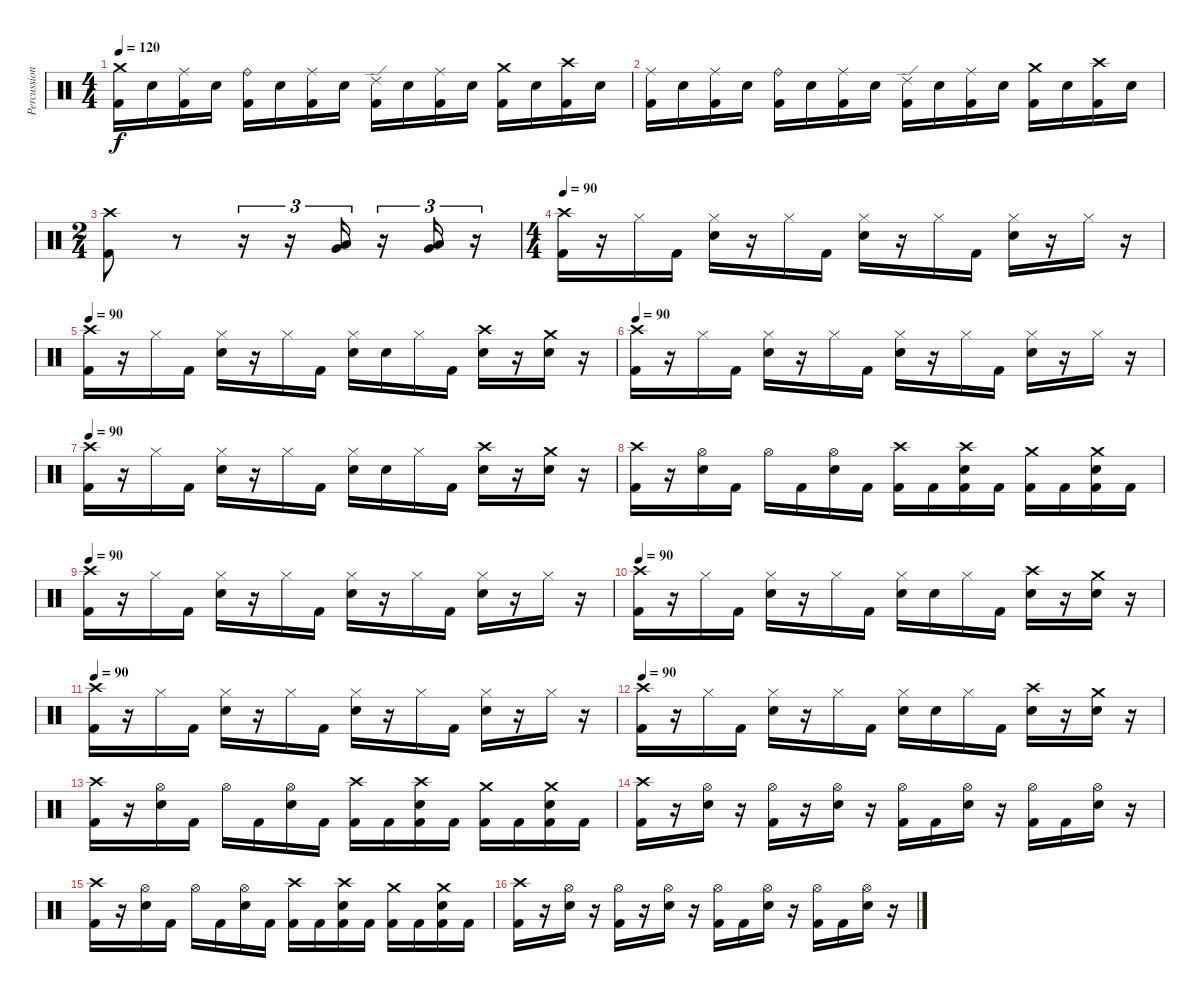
\track ("Percussion" "Percussion") {instrument percussion}
\staff {score}
\articulation defaults
\ts (4 4)
\tempo 120
\clef neutral
\ks c
("Crash medium (hit)" "Kick (hit) 2").16{dy f} "Snare (hit) 2".16 ("Ride (middle)" "Kick (hit) 2").16 "Snare (hit) 2".16 ("Ride (bell)" "Kick (hit) 2").16 "Snare (hit) 2".16 ("Ride (middle)" "Kick (hit) 2").16 "Snare (hit) 2".16 ("Ride (edge) 2" "Kick (hit) 2").16 "Snare (hit) 2".16 ("Ride (middle)" "Kick (hit) 2").16 "Snare (hit) 2".16 ("Crash medium (hit)" "Kick (hit) 2").16 "Snare (hit) 2".16 ("Crash high (hit)" "Kick (hit) 2").16 "Snare (hit) 2".16 |
("Ride (middle)" "Kick (hit) 2").16 "Snare (hit) 2".16 ("Ride (middle)" "Kick (hit) 2").16 "Snare (hit) 2".16 ("Ride (bell)" "Kick (hit) 2").16 "Snare (hit) 2".16 ("Ride (middle)" "Kick (hit) 2").16 "Snare (hit) 2".16 ("Ride (edge) 2" "Kick (hit) 2").16 "Snare (hit) 2".16 ("Ride (middle)" "Kick (hit) 2").16 "Snare (hit) 2".16 ("Crash medium (hit)" "Kick (hit) 2").16 "Snare (hit) 2".16 ("Crash high (hit)" "Kick (hit) 2").16 "Snare (hit) 2".16 |
\ts (2 4)
("Crash high (hit)" "Kick (hit) 2").8 r.8 r.16{tu (3 2)} r.16{tu (3 2)} ("Low Tom (hit)" "Very Low Tom (hit)").16{tu (3 2)} r.16{tu (3 2)} ("Low Tom (hit)" "Very Low Tom (hit)").16{tu (3 2)} r.16{tu (3 2)} |
\ts (4 4)
\tempo 90
("Crash high (hit)" "Kick (hit) 2").16 r.16 "Hi-Hat (closed)".16 "Kick (hit) 2".16 ("Hi-Hat (closed)" "Snare (hit) 2").16 r.16 "Hi-Hat (closed)".16 "Kick (hit) 2".16 ("Hi-Hat (closed)" "Snare (hit) 2").16 r.16 "Hi-Hat (closed)".16 "Kick (hit) 2".16 ("Hi-Hat (closed)" "Snare (hit) 2").16 r.16 "Hi-Hat (closed)".16 r.16 |
\tempo 90
("Crash high (hit)" "Kick (hit) 2").16 r.16 "Hi-Hat (closed)".16 "Kick (hit) 2".16 ("Hi-Hat (closed)" "Snare (hit) 2").16 r.16 "Hi-Hat (closed)".16 "Kick (hit) 2".16 ("Hi-Hat (closed)" "Snare (hit) 2").16 "Snare (hit) 2".16 "Hi-Hat (closed)".16 "Kick (hit) 2".16 ("Crash high (hit)" "Snare (hit) 2").16 r.16 ("Crash medium (hit)" "Snare (hit) 2").16 r.16 |
\tempo 90
("Crash high (hit)" "Kick (hit) 2").16 r.16 "Hi-Hat (closed)".16 "Kick (hit) 2".16 ("Hi-Hat (closed)" "Snare (hit) 2").16 r.16 "Hi-Hat (closed)".16 "Kick (hit) 2".16 ("Hi-Hat (closed)" "Snare (hit) 2").16 r.16 "Hi-Hat (closed)".16 "Kick (hit) 2".16 ("Hi-Hat (closed)" "Snare (hit) 2").16 r.16 "Hi-Hat (closed)".16 r.16 |
\tempo 90
("Crash high (hit)" "Kick (hit) 2").16 r.16 "Hi-Hat (closed)".16 "Kick (hit) 2".16 ("Hi-Hat (closed)" "Snare (hit) 2").16 r.16 "Hi-Hat (closed)".16 "Kick (hit) 2".16 ("Hi-Hat (closed)" "Snare (hit) 2").16 "Snare (hit) 2".16 "Hi-Hat (closed)".16 "Kick (hit) 2".16 ("Crash high (hit)" "Snare (hit) 2").16 r.16 ("Crash medium (hit)" "Snare (hit) 2").16 r.16 |
("Crash high (hit)" "Kick (hit) 2").16 r.16 ("Hi-Hat (open)" "Snare (hit) 2").16 "Kick (hit) 2".16 "Hi-Hat (open)".16 "Kick (hit) 2".16 ("Hi-Hat (open)" "Snare (hit) 2").16 "Kick (hit) 2".16 ("Crash high (hit)" "Kick (hit) 2").16 "Kick (hit) 2".16 ("Crash high (hit)" "Snare (hit) 2" "Kick (hit) 2").16 "Kick (hit) 2".16 ("Crash medium (hit)" "Kick (hit) 2").16 "Kick (hit) 2".16 ("Crash medium (hit)" "Snare (hit) 2" "Kick (hit) 2").16 "Kick (hit) 2".16 |
\tempo 90
("Crash high (hit)" "Kick (hit) 2").16 r.16 "Hi-Hat (closed)".16 "Kick (hit) 2".16 ("Hi-Hat (closed)" "Snare (hit) 2").16 r.16 "Hi-Hat (closed)".16 "Kick (hit) 2".16 ("Hi-Hat (closed)" "Snare (hit) 2").16 r.16 "Hi-Hat (closed)".16 "Kick (hit) 2".16 ("Hi-Hat (closed)" "Snare (hit) 2").16 r.16 "Hi-Hat (closed)".16 r.16 |
\tempo 90
("Crash high (hit)" "Kick (hit) 2").16 r.16 "Hi-Hat (closed)".16 "Kick (hit) 2".16 ("Hi-Hat (closed)" "Snare (hit) 2").16 r.16 "Hi-Hat (closed)".16 "Kick (hit) 2".16 ("Hi-Hat (closed)" "Snare (hit) 2").16 "Snare (hit) 2".16 "Hi-Hat (closed)".16 "Kick (hit) 2".16 ("Crash high (hit)" "Snare (hit) 2").16 r.16 ("Crash medium (hit)" "Snare (hit) 2").16 r.16 |
\tempo 90
("Crash high (hit)" "Kick (hit) 2").16 r.16 "Hi-Hat (closed)".16 "Kick (hit) 2".16 ("Hi-Hat (closed)" "Snare (hit) 2").16 r.16 "Hi-Hat (closed)".16 "Kick (hit) 2".16 ("Hi-Hat (closed)" "Snare (hit) 2").16 r.16 "Hi-Hat (closed)".16 "Kick (hit) 2".16 ("Hi-Hat (closed)" "Snare (hit) 2").16 r.16 "Hi-Hat (closed)".16 r.16 |
\tempo 90
("Crash high (hit)" "Kick (hit) 2").16 r.16 "Hi-Hat (closed)".16 "Kick (hit) 2".16 ("Hi-Hat (closed)" "Snare (hit) 2").16 r.16 "Hi-Hat (closed)".16 "Kick (hit) 2".16 ("Hi-Hat (closed)" "Snare (hit) 2").16 "Snare (hit) 2".16 "Hi-Hat (closed)".16 "Kick (hit) 2".16 ("Crash high (hit)" "Snare (hit) 2").16 r.16 ("Crash medium (hit)" "Snare (hit) 2").16 r.16 |
("Crash high (hit)" "Kick (hit) 2").16 r.16 ("Hi-Hat (open)" "Snare (hit) 2").16 "Kick (hit) 2".16 "Hi-Hat (open)".16 "Kick (hit) 2".16 ("Hi-Hat (open)" "Snare (hit) 2").16 "Kick (hit) 2".16 ("Crash high (hit)" "Kick (hit) 2").16 "Kick (hit) 2".16 ("Crash high (hit)" "Snare (hit) 2" "Kick (hit) 2").16 "Kick (hit) 2".16 ("Crash medium (hit)" "Kick (hit) 2").16 "Kick (hit) 2".16 ("Crash medium (hit)" "Snare (hit) 2" "Kick (hit) 2").16 "Kick (hit) 2".16 |
("Crash high (hit)" "Kick (hit) 2").16 r.16 ("Hi-Hat (open)" "Snare (hit) 2").16 r.16 ("Hi-Hat (open)" "Kick (hit) 2").16 r.16 ("Hi-Hat (open)" "Snare (hit) 2").16 r.16 ("Hi-Hat (open)" "Kick (hit) 2").16 "Kick (hit) 2".16 ("Hi-Hat (open)" "Snare (hit) 2").16 r.16 ("Hi-Hat (open)" "Kick (hit) 2").16 "Kick (hit) 2".16 ("Hi-Hat (open)" "Snare (hit) 2").16 r.16 |
("Crash high (hit)" "Kick (hit) 2").16 r.16 ("Hi-Hat (open)" "Snare (hit) 2").16 "Kick (hit) 2".16 "Hi-Hat (open)".16 "Kick (hit) 2".16 ("Hi-Hat (open)" "Snare (hit) 2").16 "Kick (hit) 2".16 ("Crash high (hit)" "Kick (hit) 2").16 "Kick (hit) 2".16 ("Crash high (hit)" "Snare (hit) 2" "Kick (hit) 2").16 "Kick (hit) 2".16 ("Crash medium (hit)" "Kick (hit) 2").16 "Kick (hit) 2".16 ("Crash medium (hit)" "Snare (hit) 2" "Kick (hit) 2").16 "Kick (hit) 2".16 |
("Crash high (hit)" "Kick (hit) 2").16 r.16 ("Hi-Hat (open)" "Snare (hit) 2").16 r.16 ("Hi-Hat (open)" "Kick (hit) 2").16 r.16 ("Hi-Hat (open)" "Snare (hit) 2").16 r.16 ("Hi-Hat (open)" "Kick (hit) 2").16 "Kick (hit) 2".16 ("Hi-Hat (open)" "Snare (hit) 2").16 r.16 ("Hi-Hat (open)" "Kick (hit) 2").16 "Kick (hit) 2".16 ("Hi-Hat (open)" "Snare (hit) 2").16 r.16
